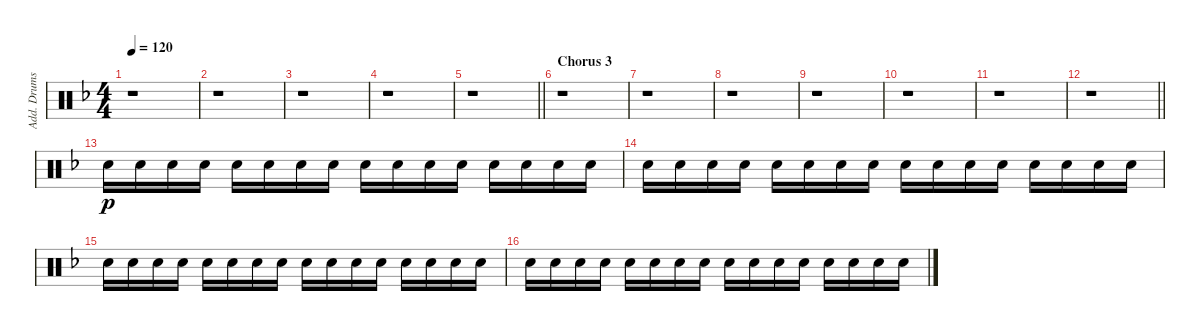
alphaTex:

\track ("Add. Drums" "Add. Drums") {instrument percussion}
\staff {score}
\articulation defaults
\ts (4 4)
\tempo 120
\clef neutral
\ks dminor
r.1{dy p} |
r.1 |
r.1 |
r.1 |
\barLineRight lightlight
r.1 |
\section ("" "Chorus 3")
r.1 |
r.1 |
r.1 |
r.1 |
r.1 |
r.1 |
\barLineRight lightlight
r.1 |
"Electric Snare (hit)".16 "Electric Snare (hit)".16 "Electric Snare (hit)".16 "Electric Snare (hit)".16 "Electric Snare (hit)".16 "Electric Snare (hit)".16 "Electric Snare (hit)".16 "Electric Snare (hit)".16 "Electric Snare (hit)".16 "Electric Snare (hit)".16 "Electric Snare (hit)".16 "Electric Snare (hit)".16 "Electric Snare (hit)".16 "Electric Snare (hit)".16 "Electric Snare (hit)".16 "Electric Snare (hit)".16 |
"Electric Snare (hit)".16 "Electric Snare (hit)".16 "Electric Snare (hit)".16 "Electric Snare (hit)".16 "Electric Snare (hit)".16 "Electric Snare (hit)".16 "Electric Snare (hit)".16 "Electric Snare (hit)".16 "Electric Snare (hit)".16 "Electric Snare (hit)".16 "Electric Snare (hit)".16 "Electric Snare (hit)".16 "Electric Snare (hit)".16 "Electric Snare (hit)".16 "Electric Snare (hit)".16 "Electric Snare (hit)".16 |
"Electric Snare (hit)".16 "Electric Snare (hit)".16 "Electric Snare (hit)".16 "Electric Snare (hit)".16 "Electric Snare (hit)".16 "Electric Snare (hit)".16 "Electric Snare (hit)".16 "Electric Snare (hit)".16 "Electric Snare (hit)".16 "Electric Snare (hit)".16 "Electric Snare (hit)".16 "Electric Snare (hit)".16 "Electric Snare (hit)".16 "Electric Snare (hit)".16 "Electric Snare (hit)".16 "Electric Snare (hit)".16 |
"Electric Snare (hit)".16 "Electric Snare (hit)".16 "Electric Snare (hit)".16 "Electric Snare (hit)".16 "Electric Snare (hit)".16 "Electric Snare (hit)".16 "Electric Snare (hit)".16 "Electric Snare (hit)".16 "Electric Snare (hit)".16 "Electric Snare (hit)".16 "Electric Snare (hit)".16 "Electric Snare (hit)".16 "Electric Snare (hit)".16 "Electric Snare (hit)".16 "Electric Snare (hit)".16 "Electric Snare (hit)".16
